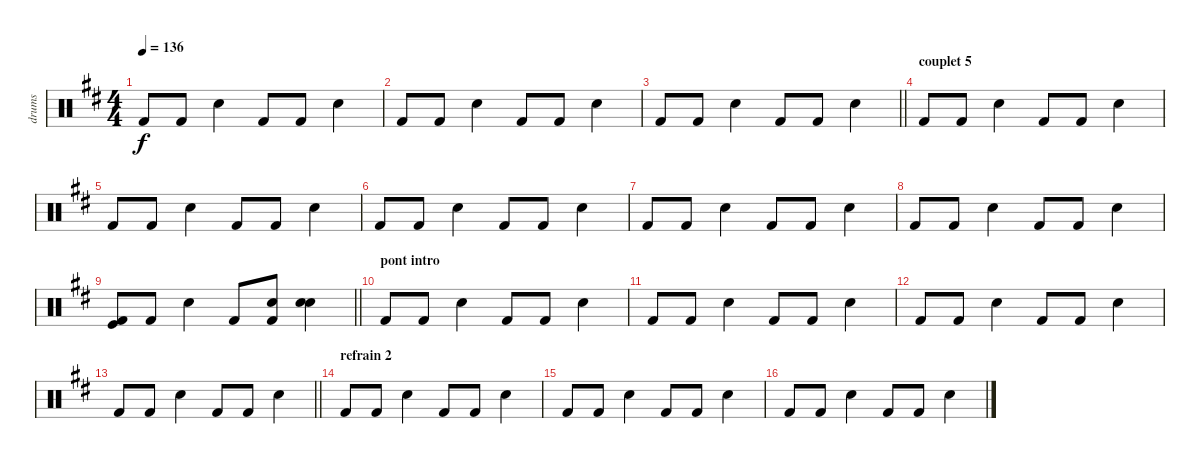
\track ("drums" "drums") {instrument percussion}
\staff {score}
\articulation defaults
\ts (4 4)
\tempo 136
\clef neutral
\ks d "Kick (hit) 2".8{dy f} "Kick (hit) 2".8 "Electric Snare (hit)".4 "Kick (hit) 2".8 "Kick (hit) 2".8 "Electric Snare (hit)".4
|
"Kick (hit) 2".8 "Kick (hit) 2".8 "Electric Snare (hit)".4 "Kick (hit) 2".8 "Kick (hit) 2".8 "Electric Snare (hit)".4 |
\barLineRight lightlight "Kick (hit) 2".8 "Kick (hit) 2".8 "Electric Snare (hit)".4 "Kick (hit) 2".8 "Kick (hit) 2".8 "Electric Snare (hit)".4
|
\section ("" "couplet 5")
"Kick (hit) 2".8 "Kick (hit) 2".8 "Electric Snare (hit)".4 "Kick (hit) 2".8 "Kick (hit) 2".8 "Electric Snare (hit)".4 |
"Kick (hit) 2".8 "Kick (hit) 2".8 "Electric Snare (hit)".4 "Kick (hit) 2".8 "Kick (hit) 2".8 "Electric Snare (hit)".4 |
"Kick (hit) 2".8 "Kick (hit) 2".8 "Electric Snare (hit)".4 "Kick (hit) 2".8 "Kick (hit) 2".8 "Electric Snare (hit)".4 |
"Kick (hit) 2".8 "Kick (hit) 2".8 "Electric Snare (hit)".4 "Kick (hit) 2".8 "Kick (hit) 2".8 "Electric Snare (hit)".4 |
"Kick (hit) 2".8 "Kick (hit) 2".8 "Electric Snare (hit)".4 "Kick (hit) 2".8 "Kick (hit) 2".8 "Electric Snare (hit)".4 |
\barLineRight lightlight
("Kick (hit)" "Kick (hit) 2").8 "Kick (hit) 2".8 "Electric Snare (hit)".4 "Kick (hit) 2".8 ("Hand Clap (hit)" "Kick (hit) 2").8 ("Hand Clap (hit)" "Electric Snare (hit)").4 |
\section ("" "pont intro")
"Kick (hit) 2".8 "Kick (hit) 2".8 "Electric Snare (hit)".4 "Kick (hit) 2".8 "Kick (hit) 2".8 "Electric Snare (hit)".4 |
"Kick (hit) 2".8 "Kick (hit) 2".8 "Electric Snare (hit)".4 "Kick (hit) 2".8 "Kick (hit) 2".8 "Electric Snare (hit)".4 |
"Kick (hit) 2".8 "Kick (hit) 2".8 "Electric Snare (hit)".4 "Kick (hit) 2".8 "Kick (hit) 2".8 "Electric Snare (hit)".4 |
\barLineRight lightlight "Kick (hit) 2".8 "Kick (hit) 2".8 "Electric Snare (hit)".4 "Kick (hit) 2".8 "Kick (hit) 2".8 "Electric Snare (hit)".4
|
\section ("" "refrain 2")
"Kick (hit) 2".8 "Kick (hit) 2".8 "Electric Snare (hit)".4 "Kick (hit) 2".8 "Kick (hit) 2".8 "Electric Snare (hit)".4 |
"Kick (hit) 2".8 "Kick (hit) 2".8 "Electric Snare (hit)".4 "Kick (hit) 2".8 "Kick (hit) 2".8 "Electric Snare (hit)".4 |
"Kick (hit) 2".8 "Kick (hit) 2".8 "Electric Snare (hit)".4 "Kick (hit) 2".8 "Kick (hit) 2".8 "Electric Snare (hit)".4
